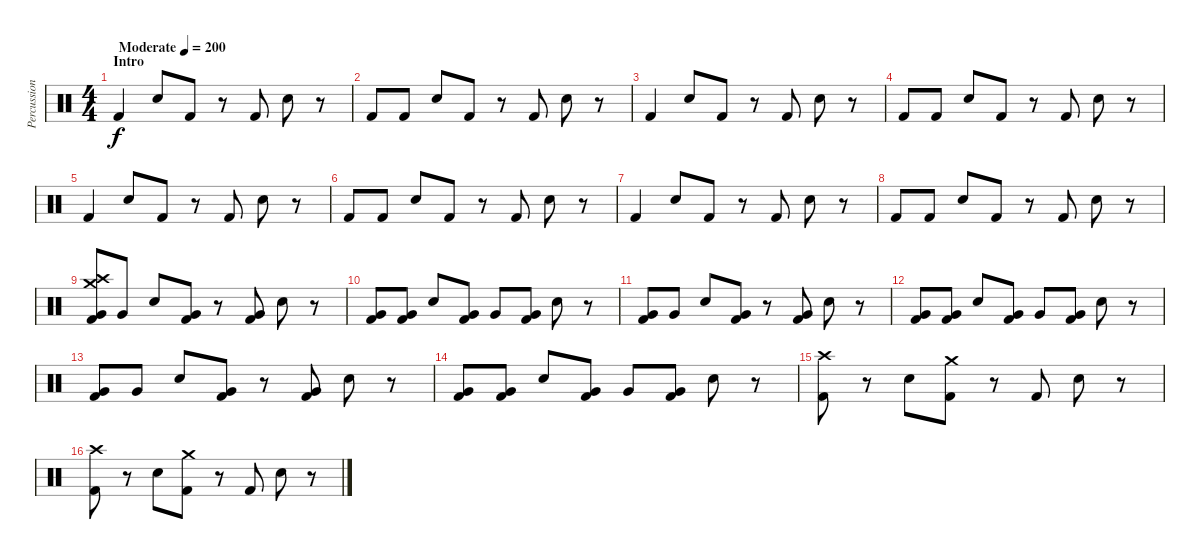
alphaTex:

\track ("Percussion" "Percussion") {instrument percussion}
\staff {score}
\articulation defaults
\ts (4 4)
\section ("" "Intro")
\tempo (200 "Moderate")
\clef neutral
\ks c "Kick (hit) 2".4{dy f} "Snare (hit) 2".8 "Kick (hit) 2".8
r.8 "Kick (hit) 2".8 "Snare (hit) 2".8 r.8 |
"Kick (hit) 2".8 "Kick (hit) 2".8 "Snare (hit) 2".8 "Kick (hit) 2".8 r.8 "Kick (hit) 2".8 "Snare (hit) 2".8 r.8 |
"Kick (hit) 2".4 "Snare (hit) 2".8 "Kick (hit) 2".8 r.8 "Kick (hit) 2".8 "Snare (hit) 2".8 r.8 |
"Kick (hit) 2".8 "Kick (hit) 2".8 "Snare (hit) 2".8 "Kick (hit) 2".8 r.8 "Kick (hit) 2".8 "Snare (hit) 2".8 r.8 |
"Kick (hit) 2".4 "Snare (hit) 2".8 "Kick (hit) 2".8 r.8 "Kick (hit) 2".8 "Snare (hit) 2".8 r.8 |
"Kick (hit) 2".8 "Kick (hit) 2".8 "Snare (hit) 2".8 "Kick (hit) 2".8 r.8 "Kick (hit) 2".8 "Snare (hit) 2".8 r.8 |
"Kick (hit) 2".4 "Snare (hit) 2".8 "Kick (hit) 2".8 r.8 "Kick (hit) 2".8 "Snare (hit) 2".8 r.8 |
"Kick (hit) 2".8 "Kick (hit) 2".8 "Snare (hit) 2".8 "Kick (hit) 2".8 r.8 "Kick (hit) 2".8 "Snare (hit) 2".8 r.8 |
("Crash high (hit)" "Crash medium (hit)" "Very Low Tom (hit)" "Kick (hit) 2").8 "Very Low Tom (hit)".8 "Snare (hit) 2".8 ("Very Low Tom (hit)" "Kick (hit) 2").8 r.8 ("Very Low Tom (hit)" "Kick (hit) 2").8 "Snare (hit) 2".8 r.8 |
("Very Low Tom (hit)" "Kick (hit) 2").8 ("Very Low Tom (hit)" "Kick (hit) 2").8 "Snare (hit) 2".8 ("Very Low Tom (hit)" "Kick (hit) 2").8 "Very Low Tom (hit)".8 ("Very Low Tom (hit)" "Kick (hit) 2").8 "Snare (hit) 2".8 r.8 |
("Very Low Tom (hit)" "Kick (hit) 2").8 "Very Low Tom (hit)".8 "Snare (hit) 2".8 ("Very Low Tom (hit)" "Kick (hit) 2").8 r.8 ("Very Low Tom (hit)" "Kick (hit) 2").8 "Snare (hit) 2".8 r.8 |
("Very Low Tom (hit)" "Kick (hit) 2").8 ("Very Low Tom (hit)" "Kick (hit) 2").8 "Snare (hit) 2".8 ("Very Low Tom (hit)" "Kick (hit) 2").8 "Very Low Tom (hit)".8 ("Very Low Tom (hit)" "Kick (hit) 2").8 "Snare (hit) 2".8 r.8 |
("Very Low Tom (hit)" "Kick (hit) 2").8 "Very Low Tom (hit)".8 "Snare (hit) 2".8 ("Very Low Tom (hit)" "Kick (hit) 2").8 r.8 ("Very Low Tom (hit)" "Kick (hit) 2").8 "Snare (hit) 2".8 r.8 |
("Very Low Tom (hit)" "Kick (hit) 2").8 ("Very Low Tom (hit)" "Kick (hit) 2").8 "Snare (hit) 2".8 ("Very Low Tom (hit)" "Kick (hit) 2").8 "Very Low Tom (hit)".8 ("Very Low Tom (hit)" "Kick (hit) 2").8 "Snare (hit) 2".8 r.8 |
("Crash high (hit)" "Kick (hit) 2").8 r.8 "Snare (hit) 2".8 ("Crash medium (hit)" "Kick (hit) 2").8 r.8 "Kick (hit) 2".8 "Snare (hit) 2".8 r.8 |
("Crash high (hit)" "Kick (hit) 2").8 r.8 "Snare (hit) 2".8 ("Crash medium (hit)" "Kick (hit) 2").8 r.8 "Kick (hit) 2".8 "Snare (hit) 2".8 r.8
